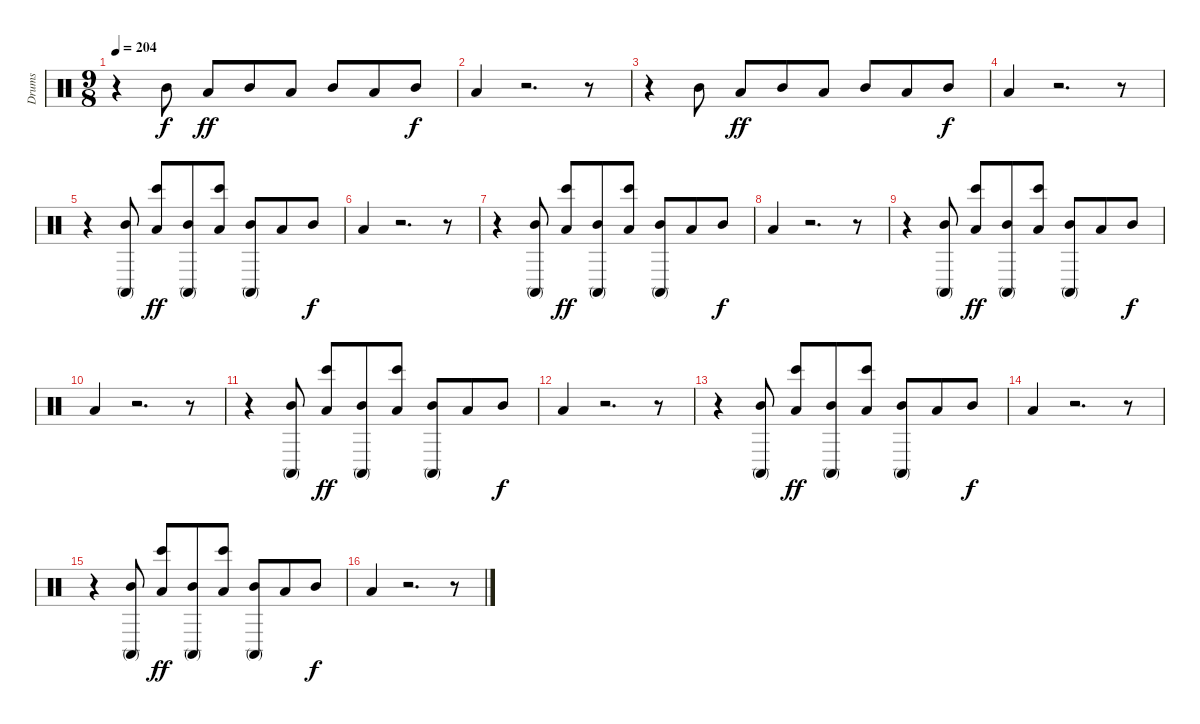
\track ("Drums" "Drums") {instrument percussion}
\staff {score}
\articulation defaults
\ts (9 8)
\tempo 204
\clef neutral
\ks c
r.4{dy f} "Mid Tom (hit)".8 "Low Tom (hit)".8{dy ff} "Mid Tom (hit)".8 "Low Tom (hit)".8 "Mid Tom (hit)".8 "Low Tom (hit)".8 "Mid Tom (hit)".8{dy f} |
"Low Tom (hit)".4 r.2{d} r.8 |
r.4 "Mid Tom (hit)".8 "Low Tom (hit)".8{dy ff} "Mid Tom (hit)".8 "Low Tom (hit)".8 "Mid Tom (hit)".8 "Low Tom (hit)".8 "Mid Tom (hit)".8{dy f} |
"Low Tom (hit)".4 r.2{d} r.8 |
r.4 ("Conga high (mute)" "Mid Tom (hit)").8 ("Bongo High (hit)" "Low Tom (hit)").8{dy ff} ("Conga high (mute)" "Mid Tom (hit)").8 ("Bongo High (hit)" "Low Tom (hit)").8 ("Conga high (mute)" "Mid Tom (hit)").8 "Low Tom (hit)".8 "Mid Tom (hit)".8{dy f} |
"Low Tom (hit)".4 r.2{d} r.8 |
r.4 ("Conga high (mute)" "Mid Tom (hit)").8 ("Bongo High (hit)" "Low Tom (hit)").8{dy ff} ("Conga high (mute)" "Mid Tom (hit)").8 ("Bongo High (hit)" "Low Tom (hit)").8 ("Conga high (mute)" "Mid Tom (hit)").8 "Low Tom (hit)".8 "Mid Tom (hit)".8{dy f} |
"Low Tom (hit)".4 r.2{d} r.8 |
r.4 ("Conga high (mute)" "Mid Tom (hit)").8 ("Bongo High (hit)" "Low Tom (hit)").8{dy ff} ("Conga high (mute)" "Mid Tom (hit)").8 ("Bongo High (hit)" "Low Tom (hit)").8 ("Conga high (mute)" "Mid Tom (hit)").8 "Low Tom (hit)".8 "Mid Tom (hit)".8{dy f} |
"Low Tom (hit)".4 r.2{d} r.8 |
r.4 ("Conga high (mute)" "Mid Tom (hit)").8 ("Bongo High (hit)" "Low Tom (hit)").8{dy ff} ("Conga high (mute)" "Mid Tom (hit)").8 ("Bongo High (hit)" "Low Tom (hit)").8 ("Conga high (mute)" "Mid Tom (hit)").8 "Low Tom (hit)".8 "Mid Tom (hit)".8{dy f} |
"Low Tom (hit)".4 r.2{d} r.8 |
r.4 ("Conga high (mute)" "Mid Tom (hit)").8 ("Bongo High (hit)" "Low Tom (hit)").8{dy ff} ("Conga high (mute)" "Mid Tom (hit)").8 ("Bongo High (hit)" "Low Tom (hit)").8 ("Conga high (mute)" "Mid Tom (hit)").8 "Low Tom (hit)".8 "Mid Tom (hit)".8{dy f} |
"Low Tom (hit)".4 r.2{d} r.8 |
r.4 ("Conga high (mute)" "Mid Tom (hit)").8 ("Bongo High (hit)" "Low Tom (hit)").8{dy ff} ("Conga high (mute)" "Mid Tom (hit)").8 ("Bongo High (hit)" "Low Tom (hit)").8 ("Conga high (mute)" "Mid Tom (hit)").8 "Low Tom (hit)".8 "Mid Tom (hit)".8{dy f} |
"Low Tom (hit)".4 r.2{d} r.8
